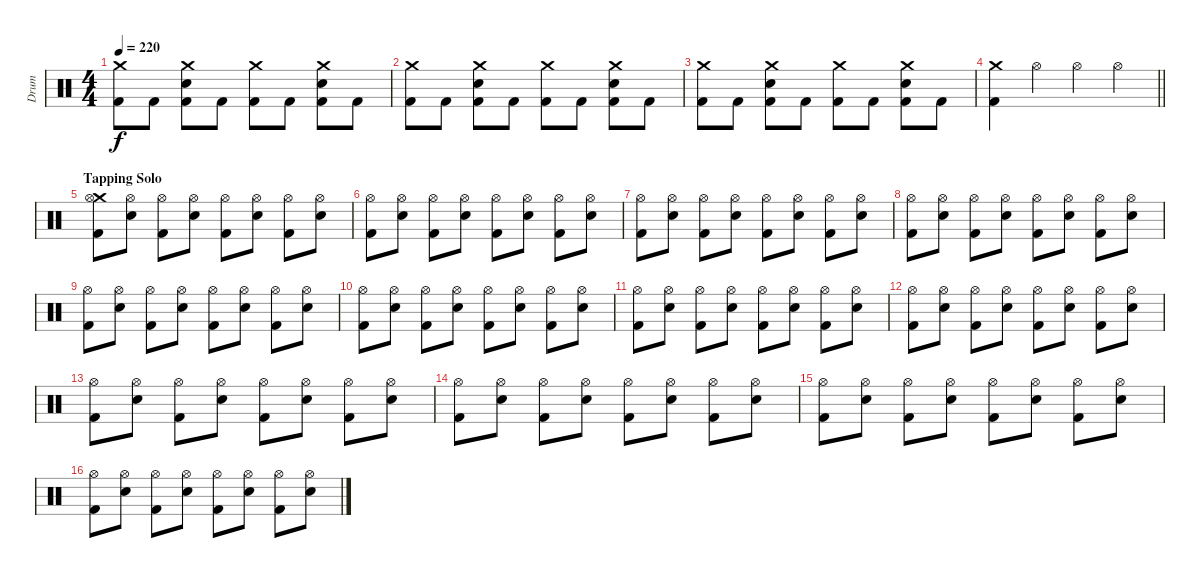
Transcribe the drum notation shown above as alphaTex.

\track ("Drum" "Drum") {instrument percussion}
\staff {score}
\articulation defaults
\ts (4 4)
\tempo 220
\clef neutral
\ks c
("Crash medium (hit)" "Kick (hit) 2").8{dy f} "Kick (hit) 2".8 ("Crash medium (hit)" "Electric Snare (hit)" "Kick (hit) 2").8 "Kick (hit) 2".8 ("Crash medium (hit)" "Kick (hit) 2").8 "Kick (hit) 2".8 ("Crash medium (hit)" "Electric Snare (hit)" "Kick (hit) 2").8 "Kick (hit) 2".8 |
("Crash medium (hit)" "Kick (hit) 2").8 "Kick (hit) 2".8 ("Crash medium (hit)" "Electric Snare (hit)" "Kick (hit) 2").8 "Kick (hit) 2".8 ("Crash medium (hit)" "Kick (hit) 2").8 "Kick (hit) 2".8 ("Crash medium (hit)" "Electric Snare (hit)" "Kick (hit) 2").8 "Kick (hit) 2".8 |
("Crash medium (hit)" "Kick (hit) 2").8 "Kick (hit) 2".8 ("Crash medium (hit)" "Electric Snare (hit)" "Kick (hit) 2").8 "Kick (hit) 2".8 ("Crash medium (hit)" "Kick (hit) 2").8 "Kick (hit) 2".8 ("Crash medium (hit)" "Electric Snare (hit)" "Kick (hit) 2").8 "Kick (hit) 2".8 |
\barLineRight lightlight
("Crash medium (hit)" "Kick (hit) 2").4 "Hi-Hat (open)".4 "Hi-Hat (open)".4 "Hi-Hat (open)".4 |
\section ("" "Tapping Solo")
("Crash medium (hit)" "Hi-Hat (open)" "Kick (hit) 2").8 ("Hi-Hat (open)" "Electric Snare (hit)").8 ("Hi-Hat (open)" "Kick (hit) 2").8 ("Hi-Hat (open)" "Electric Snare (hit)").8 ("Hi-Hat (open)" "Kick (hit) 2").8 ("Hi-Hat (open)" "Electric Snare (hit)").8 ("Hi-Hat (open)" "Kick (hit) 2").8 ("Hi-Hat (open)" "Electric Snare (hit)").8 |
("Hi-Hat (open)" "Kick (hit) 2").8 ("Hi-Hat (open)" "Electric Snare (hit)").8 ("Hi-Hat (open)" "Kick (hit) 2").8 ("Hi-Hat (open)" "Electric Snare (hit)").8 ("Hi-Hat (open)" "Kick (hit) 2").8 ("Hi-Hat (open)" "Electric Snare (hit)").8 ("Hi-Hat (open)" "Kick (hit) 2").8 ("Hi-Hat (open)" "Electric Snare (hit)").8 |
("Hi-Hat (open)" "Kick (hit) 2").8 ("Hi-Hat (open)" "Electric Snare (hit)").8 ("Hi-Hat (open)" "Kick (hit) 2").8 ("Hi-Hat (open)" "Electric Snare (hit)").8 ("Hi-Hat (open)" "Kick (hit) 2").8 ("Hi-Hat (open)" "Electric Snare (hit)").8 ("Hi-Hat (open)" "Kick (hit) 2").8 ("Hi-Hat (open)" "Electric Snare (hit)").8 |
("Hi-Hat (open)" "Kick (hit) 2").8 ("Hi-Hat (open)" "Electric Snare (hit)").8 ("Hi-Hat (open)" "Kick (hit) 2").8 ("Hi-Hat (open)" "Electric Snare (hit)").8 ("Hi-Hat (open)" "Kick (hit) 2").8 ("Hi-Hat (open)" "Electric Snare (hit)").8 ("Hi-Hat (open)" "Kick (hit) 2").8 ("Hi-Hat (open)" "Electric Snare (hit)").8 |
("Hi-Hat (open)" "Kick (hit) 2").8 ("Hi-Hat (open)" "Electric Snare (hit)").8 ("Hi-Hat (open)" "Kick (hit) 2").8 ("Hi-Hat (open)" "Electric Snare (hit)").8 ("Hi-Hat (open)" "Kick (hit) 2").8 ("Hi-Hat (open)" "Electric Snare (hit)").8 ("Hi-Hat (open)" "Kick (hit) 2").8 ("Hi-Hat (open)" "Electric Snare (hit)").8 |
("Hi-Hat (open)" "Kick (hit) 2").8 ("Hi-Hat (open)" "Electric Snare (hit)").8 ("Hi-Hat (open)" "Kick (hit) 2").8 ("Hi-Hat (open)" "Electric Snare (hit)").8 ("Hi-Hat (open)" "Kick (hit) 2").8 ("Hi-Hat (open)" "Electric Snare (hit)").8 ("Hi-Hat (open)" "Kick (hit) 2").8 ("Hi-Hat (open)" "Electric Snare (hit)").8 |
("Hi-Hat (open)" "Kick (hit) 2").8 ("Hi-Hat (open)" "Electric Snare (hit)").8 ("Hi-Hat (open)" "Kick (hit) 2").8 ("Hi-Hat (open)" "Electric Snare (hit)").8 ("Hi-Hat (open)" "Kick (hit) 2").8 ("Hi-Hat (open)" "Electric Snare (hit)").8 ("Hi-Hat (open)" "Kick (hit) 2").8 ("Hi-Hat (open)" "Electric Snare (hit)").8 |
("Hi-Hat (open)" "Kick (hit) 2").8 ("Hi-Hat (open)" "Electric Snare (hit)").8 ("Hi-Hat (open)" "Kick (hit) 2").8 ("Hi-Hat (open)" "Electric Snare (hit)").8 ("Hi-Hat (open)" "Kick (hit) 2").8 ("Hi-Hat (open)" "Electric Snare (hit)").8 ("Hi-Hat (open)" "Kick (hit) 2").8 ("Hi-Hat (open)" "Electric Snare (hit)").8 |
("Hi-Hat (open)" "Kick (hit) 2").8 ("Hi-Hat (open)" "Electric Snare (hit)").8 ("Hi-Hat (open)" "Kick (hit) 2").8 ("Hi-Hat (open)" "Electric Snare (hit)").8 ("Hi-Hat (open)" "Kick (hit) 2").8 ("Hi-Hat (open)" "Electric Snare (hit)").8 ("Hi-Hat (open)" "Kick (hit) 2").8 ("Hi-Hat (open)" "Electric Snare (hit)").8 |
("Hi-Hat (open)" "Kick (hit) 2").8 ("Hi-Hat (open)" "Electric Snare (hit)").8 ("Hi-Hat (open)" "Kick (hit) 2").8 ("Hi-Hat (open)" "Electric Snare (hit)").8 ("Hi-Hat (open)" "Kick (hit) 2").8 ("Hi-Hat (open)" "Electric Snare (hit)").8 ("Hi-Hat (open)" "Kick (hit) 2").8 ("Hi-Hat (open)" "Electric Snare (hit)").8 |
("Hi-Hat (open)" "Kick (hit) 2").8 ("Hi-Hat (open)" "Electric Snare (hit)").8 ("Hi-Hat (open)" "Kick (hit) 2").8 ("Hi-Hat (open)" "Electric Snare (hit)").8 ("Hi-Hat (open)" "Kick (hit) 2").8 ("Hi-Hat (open)" "Electric Snare (hit)").8 ("Hi-Hat (open)" "Kick (hit) 2").8 ("Hi-Hat (open)" "Electric Snare (hit)").8 |
("Hi-Hat (open)" "Kick (hit) 2").8 ("Hi-Hat (open)" "Electric Snare (hit)").8 ("Hi-Hat (open)" "Kick (hit) 2").8 ("Hi-Hat (open)" "Electric Snare (hit)").8 ("Hi-Hat (open)" "Kick (hit) 2").8 ("Hi-Hat (open)" "Electric Snare (hit)").8 ("Hi-Hat (open)" "Kick (hit) 2").8 ("Hi-Hat (open)" "Electric Snare (hit)").8
